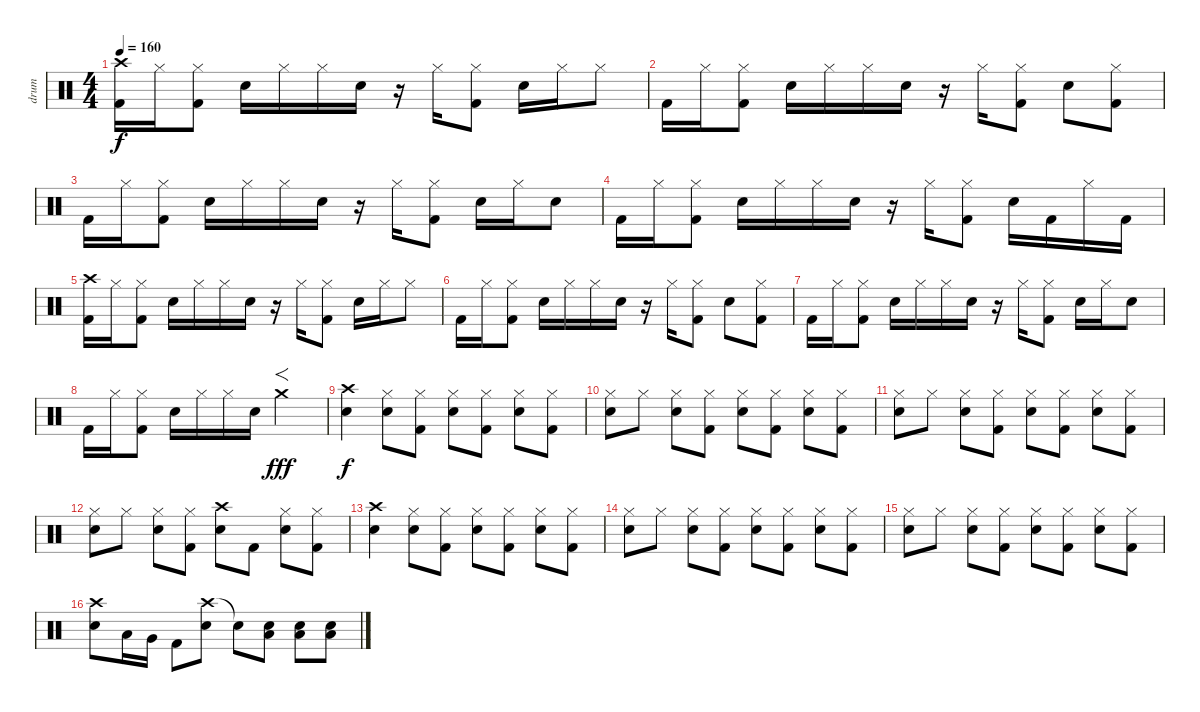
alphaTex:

\track ("drum" "drum") {instrument percussion}
\staff {score}
\articulation defaults
\ts (4 4)
\tempo 160
\clef neutral
\ks c
("Crash high (hit)" "Kick (hit) 2").16{dy f} "Hi-Hat (closed)".16 ("Hi-Hat (closed)" "Kick (hit) 2").8 "Electric Snare (hit)".16 "Hi-Hat (closed)".16 "Hi-Hat (closed)".16 "Electric Snare (hit)".16 r.16 "Hi-Hat (closed)".16 ("Hi-Hat (closed)" "Kick (hit) 2").8 "Electric Snare (hit)".16 "Hi-Hat (closed)".16 "Hi-Hat (closed)".8 |
"Kick (hit) 2".16 "Hi-Hat (closed)".16 ("Hi-Hat (closed)" "Kick (hit) 2").8 "Electric Snare (hit)".16 "Hi-Hat (closed)".16 "Hi-Hat (closed)".16 "Electric Snare (hit)".16 r.16 "Hi-Hat (closed)".16 ("Hi-Hat (closed)" "Kick (hit) 2").8 "Electric Snare (hit)".8 ("Hi-Hat (closed)" "Kick (hit) 2").8 |
"Kick (hit) 2".16 "Hi-Hat (closed)".16 ("Hi-Hat (closed)" "Kick (hit) 2").8 "Electric Snare (hit)".16 "Hi-Hat (closed)".16 "Hi-Hat (closed)".16 "Electric Snare (hit)".16 r.16 "Hi-Hat (closed)".16 ("Hi-Hat (closed)" "Kick (hit) 2").8 "Electric Snare (hit)".16 "Hi-Hat (closed)".16 "Electric Snare (hit)".8 |
"Kick (hit) 2".16 "Hi-Hat (closed)".16 ("Hi-Hat (closed)" "Kick (hit) 2").8 "Electric Snare (hit)".16 "Hi-Hat (closed)".16 "Hi-Hat (closed)".16 "Electric Snare (hit)".16 r.16 "Hi-Hat (closed)".16 ("Hi-Hat (closed)" "Kick (hit) 2").8 "Electric Snare (hit)".16 "Kick (hit) 2".16 "Hi-Hat (closed)".16 "Kick (hit) 2".16 |
("Crash high (hit)" "Kick (hit) 2").16 "Hi-Hat (closed)".16 ("Hi-Hat (closed)" "Kick (hit) 2").8 "Electric Snare (hit)".16 "Hi-Hat (closed)".16 "Hi-Hat (closed)".16 "Electric Snare (hit)".16 r.16 "Hi-Hat (closed)".16 ("Hi-Hat (closed)" "Kick (hit) 2").8 "Electric Snare (hit)".16 "Hi-Hat (closed)".16 "Hi-Hat (closed)".8 |
"Kick (hit) 2".16 "Hi-Hat (closed)".16 ("Hi-Hat (closed)" "Kick (hit) 2").8 "Electric Snare (hit)".16 "Hi-Hat (closed)".16 "Hi-Hat (closed)".16 "Electric Snare (hit)".16 r.16 "Hi-Hat (closed)".16 ("Hi-Hat (closed)" "Kick (hit) 2").8 "Electric Snare (hit)".8 ("Hi-Hat (closed)" "Kick (hit) 2").8 |
"Kick (hit) 2".16 "Hi-Hat (closed)".16 ("Hi-Hat (closed)" "Kick (hit) 2").8 "Electric Snare (hit)".16 "Hi-Hat (closed)".16 "Hi-Hat (closed)".16 "Electric Snare (hit)".16 r.16 "Hi-Hat (closed)".16 ("Hi-Hat (closed)" "Kick (hit) 2").8 "Electric Snare (hit)".16 "Hi-Hat (closed)".16 "Electric Snare (hit)".8 |
"Kick (hit) 2".16 "Hi-Hat (closed)".16 ("Hi-Hat (closed)" "Kick (hit) 2").8 "Electric Snare (hit)".16 "Hi-Hat (closed)".16 "Hi-Hat (closed)".16 "Electric Snare (hit)".16 "Crash medium (hit)".2{f dy fff} |
("Crash high (hit)" "Electric Snare (hit)").4{dy f} ("Hi-Hat (closed)" "Electric Snare (hit)").8 ("Hi-Hat (closed)" "Kick (hit) 2").8 ("Hi-Hat (closed)" "Electric Snare (hit)").8 ("Hi-Hat (closed)" "Kick (hit) 2").8 ("Hi-Hat (closed)" "Electric Snare (hit)").8 ("Hi-Hat (closed)" "Kick (hit) 2").8 |
("Hi-Hat (closed)" "Electric Snare (hit)").8 "Hi-Hat (closed)".8 ("Hi-Hat (closed)" "Electric Snare (hit)").8 ("Hi-Hat (closed)" "Kick (hit) 2").8 ("Hi-Hat (closed)" "Electric Snare (hit)").8 ("Hi-Hat (closed)" "Kick (hit) 2").8 ("Hi-Hat (closed)" "Electric Snare (hit)").8 ("Hi-Hat (closed)" "Kick (hit) 2").8 |
("Hi-Hat (closed)" "Electric Snare (hit)").8 "Hi-Hat (closed)".8 ("Hi-Hat (closed)" "Electric Snare (hit)").8 ("Hi-Hat (closed)" "Kick (hit) 2").8 ("Hi-Hat (closed)" "Electric Snare (hit)").8 ("Hi-Hat (closed)" "Kick (hit) 2").8 ("Hi-Hat (closed)" "Electric Snare (hit)").8 ("Hi-Hat (closed)" "Kick (hit) 2").8 |
("Hi-Hat (closed)" "Electric Snare (hit)").8 "Hi-Hat (closed)".8 ("Hi-Hat (closed)" "Electric Snare (hit)").8 ("Hi-Hat (closed)" "Kick (hit) 2").8 ("Crash high (hit)" "Electric Snare (hit)").8 "Kick (hit) 2".8 ("Hi-Hat (closed)" "Electric Snare (hit)").8 ("Hi-Hat (closed)" "Kick (hit) 2").8 |
("Crash high (hit)" "Electric Snare (hit)").4 ("Hi-Hat (closed)" "Electric Snare (hit)").8 ("Hi-Hat (closed)" "Kick (hit) 2").8 ("Hi-Hat (closed)" "Electric Snare (hit)").8 ("Hi-Hat (closed)" "Kick (hit) 2").8 ("Hi-Hat (closed)" "Electric Snare (hit)").8 ("Hi-Hat (closed)" "Kick (hit) 2").8 |
("Hi-Hat (closed)" "Electric Snare (hit)").8 "Hi-Hat (closed)".8 ("Hi-Hat (closed)" "Electric Snare (hit)").8 ("Hi-Hat (closed)" "Kick (hit) 2").8 ("Hi-Hat (closed)" "Electric Snare (hit)").8 ("Hi-Hat (closed)" "Kick (hit) 2").8 ("Hi-Hat (closed)" "Electric Snare (hit)").8 ("Hi-Hat (closed)" "Kick (hit) 2").8 |
("Hi-Hat (closed)" "Electric Snare (hit)").8 "Hi-Hat (closed)".8 ("Hi-Hat (closed)" "Electric Snare (hit)").8 ("Hi-Hat (closed)" "Kick (hit) 2").8 ("Hi-Hat (closed)" "Electric Snare (hit)").8 ("Hi-Hat (closed)" "Kick (hit) 2").8 ("Hi-Hat (closed)" "Electric Snare (hit)").8 ("Hi-Hat (closed)" "Kick (hit) 2").8 |
("Crash high (hit)" "Electric Snare (hit)").8 "Low Tom (hit)".16 "Very Low Tom (hit)".16 "Kick (hit) 2".8 ("Crash high (hit)" "Electric Snare (hit)").8 "Snare (hit)"{t}.8 ("Electric Snare (hit)" "Low Tom (hit)").8 ("Electric Snare (hit)" "Low Tom (hit)").8 ("Electric Snare (hit)" "Low Tom (hit)").8
